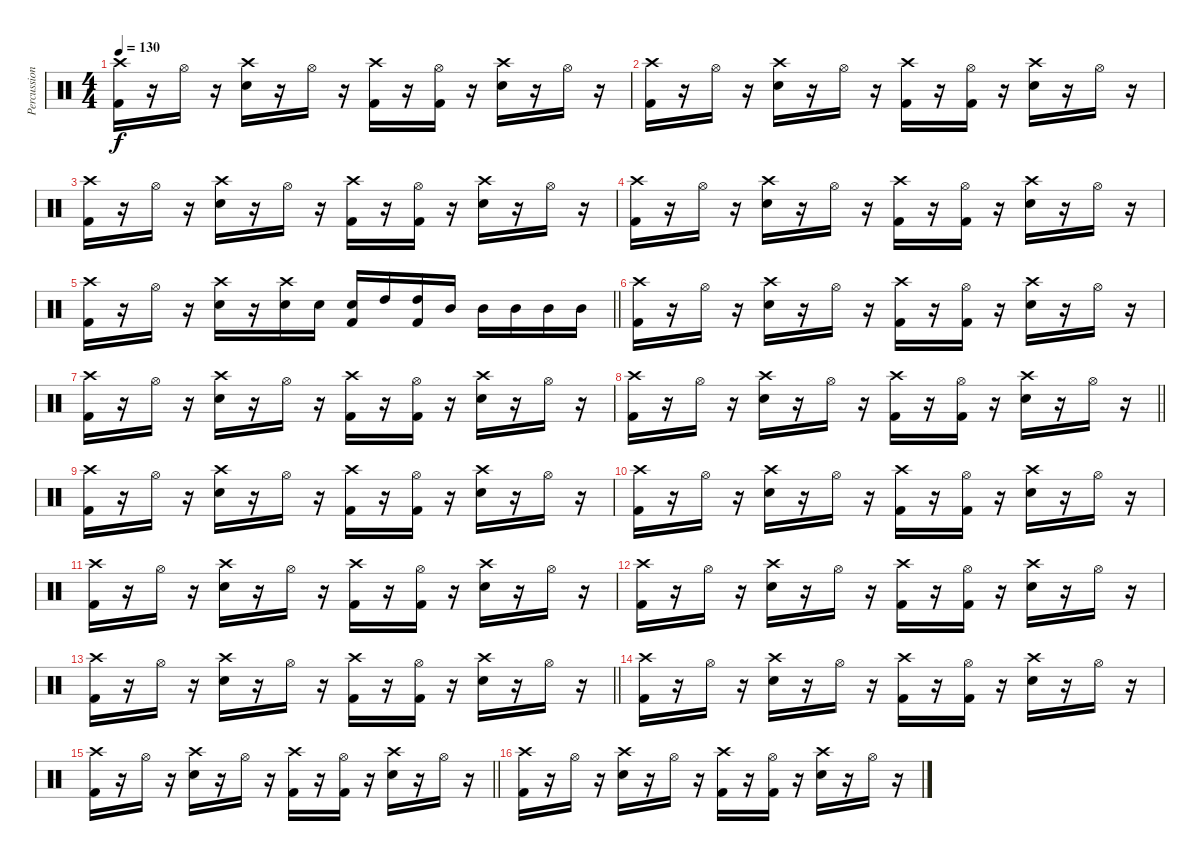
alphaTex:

\track ("Percussion" "Percussion") {instrument percussion}
\staff {score}
\articulation defaults
\ts (4 4)
\tempo 130
\clef neutral
\ks c
("Crash high (hit)" "Kick (hit) 2").16{dy f} r.16 "Hi-Hat (open)".16 r.16 ("Crash high (hit)" "Snare (hit) 2").16 r.16 "Hi-Hat (open)".16 r.16 ("Crash high (hit)" "Kick (hit) 2").16 r.16 ("Hi-Hat (open)" "Kick (hit) 2").16 r.16 ("Crash high (hit)" "Snare (hit) 2").16 r.16 "Hi-Hat (open)".16 r.16 |
("Crash high (hit)" "Kick (hit) 2").16 r.16 "Hi-Hat (open)".16 r.16 ("Crash high (hit)" "Snare (hit) 2").16 r.16 "Hi-Hat (open)".16 r.16 ("Crash high (hit)" "Kick (hit) 2").16 r.16 ("Hi-Hat (open)" "Kick (hit) 2").16 r.16 ("Crash high (hit)" "Snare (hit) 2").16 r.16 "Hi-Hat (open)".16 r.16 |
("Crash high (hit)" "Kick (hit) 2").16 r.16 "Hi-Hat (open)".16 r.16 ("Crash high (hit)" "Snare (hit) 2").16 r.16 "Hi-Hat (open)".16 r.16 ("Crash high (hit)" "Kick (hit) 2").16 r.16 ("Hi-Hat (open)" "Kick (hit) 2").16 r.16 ("Crash high (hit)" "Snare (hit) 2").16 r.16 "Hi-Hat (open)".16 r.16 |
("Crash high (hit)" "Kick (hit) 2").16 r.16 "Hi-Hat (open)".16 r.16 ("Crash high (hit)" "Snare (hit) 2").16 r.16 "Hi-Hat (open)".16 r.16 ("Crash high (hit)" "Kick (hit) 2").16 r.16 ("Hi-Hat (open)" "Kick (hit) 2").16 r.16 ("Crash high (hit)" "Snare (hit) 2").16 r.16 "Hi-Hat (open)".16 r.16 |
\barLineRight lightlight
("Crash high (hit)" "Kick (hit) 2").16 r.16 "Hi-Hat (open)".16 r.16 ("Crash high (hit)" "Snare (hit) 2").16 r.16 ("Crash high (hit)" "Snare (hit) 2").16 "Snare (hit) 2".16 ("Snare (hit) 2" "Kick (hit) 2").16 "High Tom (hit)".16 ("High Tom (hit)" "Kick (hit) 2").16 "Mid Tom (hit)".16 "Mid Tom (hit)".16 "Mid Tom (hit)".16 "Mid Tom (hit)".16 "Mid Tom (hit)".16 |
("Crash high (hit)" "Kick (hit) 2").16 r.16 "Hi-Hat (open)".16 r.16 ("Crash high (hit)" "Snare (hit) 2").16 r.16 "Hi-Hat (open)".16 r.16 ("Crash high (hit)" "Kick (hit) 2").16 r.16 ("Hi-Hat (open)" "Kick (hit) 2").16 r.16 ("Crash high (hit)" "Snare (hit) 2").16 r.16 "Hi-Hat (open)".16 r.16 |
("Crash high (hit)" "Kick (hit) 2").16 r.16 "Hi-Hat (open)".16 r.16 ("Crash high (hit)" "Snare (hit) 2").16 r.16 "Hi-Hat (open)".16 r.16 ("Crash high (hit)" "Kick (hit) 2").16 r.16 ("Hi-Hat (open)" "Kick (hit) 2").16 r.16 ("Crash high (hit)" "Snare (hit) 2").16 r.16 "Hi-Hat (open)".16 r.16 |
\barLineRight lightlight
("Crash high (hit)" "Kick (hit) 2").16 r.16 "Hi-Hat (open)".16 r.16 ("Crash high (hit)" "Snare (hit) 2").16 r.16 "Hi-Hat (open)".16 r.16 ("Crash high (hit)" "Kick (hit) 2").16 r.16 ("Hi-Hat (open)" "Kick (hit) 2").16 r.16 ("Crash high (hit)" "Snare (hit) 2").16 r.16 "Hi-Hat (open)".16 r.16 |
("Crash high (hit)" "Kick (hit) 2").16 r.16 "Hi-Hat (open)".16 r.16 ("Crash high (hit)" "Snare (hit) 2").16 r.16 "Hi-Hat (open)".16 r.16 ("Crash high (hit)" "Kick (hit) 2").16 r.16 ("Hi-Hat (open)" "Kick (hit) 2").16 r.16 ("Crash high (hit)" "Snare (hit) 2").16 r.16 "Hi-Hat (open)".16 r.16 |
("Crash high (hit)" "Kick (hit) 2").16 r.16 "Hi-Hat (open)".16 r.16 ("Crash high (hit)" "Snare (hit) 2").16 r.16 "Hi-Hat (open)".16 r.16 ("Crash high (hit)" "Kick (hit) 2").16 r.16 ("Hi-Hat (open)" "Kick (hit) 2").16 r.16 ("Crash high (hit)" "Snare (hit) 2").16 r.16 "Hi-Hat (open)".16 r.16 |
("Crash high (hit)" "Kick (hit) 2").16 r.16 "Hi-Hat (open)".16 r.16 ("Crash high (hit)" "Snare (hit) 2").16 r.16 "Hi-Hat (open)".16 r.16 ("Crash high (hit)" "Kick (hit) 2").16 r.16 ("Hi-Hat (open)" "Kick (hit) 2").16 r.16 ("Crash high (hit)" "Snare (hit) 2").16 r.16 "Hi-Hat (open)".16 r.16 |
("Crash high (hit)" "Kick (hit) 2").16 r.16 "Hi-Hat (open)".16 r.16 ("Crash high (hit)" "Snare (hit) 2").16 r.16 "Hi-Hat (open)".16 r.16 ("Crash high (hit)" "Kick (hit) 2").16 r.16 ("Hi-Hat (open)" "Kick (hit) 2").16 r.16 ("Crash high (hit)" "Snare (hit) 2").16 r.16 "Hi-Hat (open)".16 r.16 |
\barLineRight lightlight
("Crash high (hit)" "Kick (hit) 2").16 r.16 "Hi-Hat (open)".16 r.16 ("Crash high (hit)" "Snare (hit) 2").16 r.16 "Hi-Hat (open)".16 r.16 ("Crash high (hit)" "Kick (hit) 2").16 r.16 ("Hi-Hat (open)" "Kick (hit) 2").16 r.16 ("Crash high (hit)" "Snare (hit) 2").16 r.16 "Hi-Hat (open)".16 r.16 |
("Crash high (hit)" "Kick (hit) 2").16 r.16 "Hi-Hat (open)".16 r.16 ("Crash high (hit)" "Snare (hit) 2").16 r.16 "Hi-Hat (open)".16 r.16 ("Crash high (hit)" "Kick (hit) 2").16 r.16 ("Hi-Hat (open)" "Kick (hit) 2").16 r.16 ("Crash high (hit)" "Snare (hit) 2").16 r.16 "Hi-Hat (open)".16 r.16 |
\barLineRight lightlight
("Crash high (hit)" "Kick (hit) 2").16 r.16 "Hi-Hat (open)".16 r.16 ("Crash high (hit)" "Snare (hit) 2").16 r.16 "Hi-Hat (open)".16 r.16 ("Crash high (hit)" "Kick (hit) 2").16 r.16 ("Hi-Hat (open)" "Kick (hit) 2").16 r.16 ("Crash high (hit)" "Snare (hit) 2").16 r.16 "Hi-Hat (open)".16 r.16 |
("Crash high (hit)" "Kick (hit) 2").16 r.16 "Hi-Hat (open)".16 r.16 ("Crash high (hit)" "Snare (hit) 2").16 r.16 "Hi-Hat (open)".16 r.16 ("Crash high (hit)" "Kick (hit) 2").16 r.16 ("Hi-Hat (open)" "Kick (hit) 2").16 r.16 ("Crash high (hit)" "Snare (hit) 2").16 r.16 "Hi-Hat (open)".16 r.16
